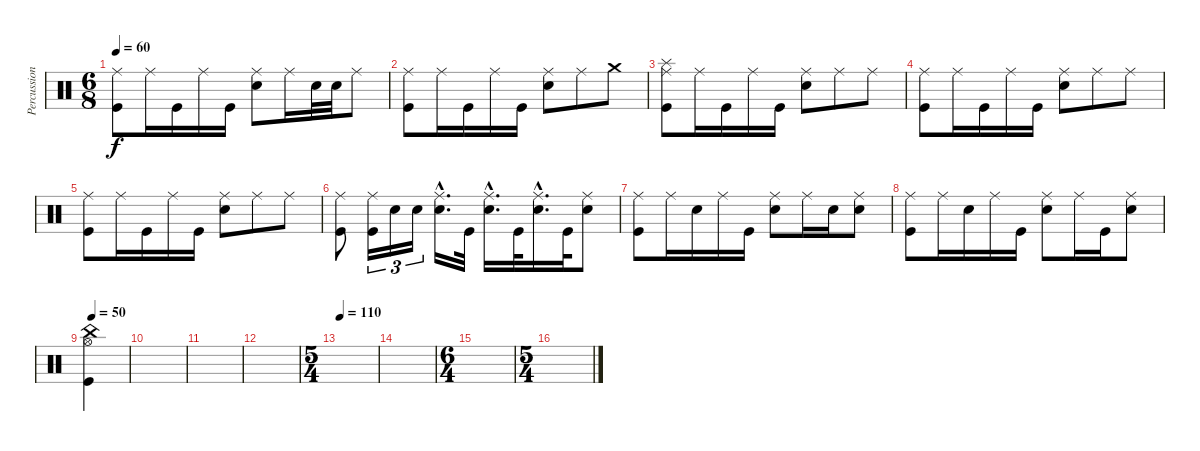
\track ("Percussions" "Percussion") {instrument percussion}
\staff {score}
\articulation defaults
\ts (6 8)
\tempo 60
\clef neutral
\ks c
("Ride (middle)" "Kick (hit)").8{dy f} "Ride (middle)".16 "Kick (hit)".16 "Ride (middle)".16 "Kick (hit)".16 ("Ride (middle)" "Snare (hit) 2").8 "Ride (middle)".16 "Snare (hit) 2".32 "Snare (hit) 2".32 "Ride (middle)".8 |
("Ride (middle)" "Kick (hit)").8 "Ride (middle)".16 "Kick (hit)".16 "Ride (middle)".16 "Kick (hit)".16 ("Ride (middle)" "Snare (hit) 2").8 "Ride (middle)".8 "Crash medium (hit)".8 |
("Splash (hit)" "Ride (middle)" "Kick (hit)").8 "Ride (middle)".16 "Kick (hit)".16 "Ride (middle)".16 "Kick (hit)".16 ("Ride (middle)" "Snare (hit) 2").8 "Ride (middle)".8 "Ride (middle)".8 |
("Ride (middle)" "Kick (hit)").8 "Ride (middle)".16 "Kick (hit)".16 "Ride (middle)".16 "Kick (hit)".16 ("Ride (middle)" "Snare (hit) 2").8 "Ride (middle)".8 "Ride (middle)".8 |
("Ride (middle)" "Kick (hit)").8 "Ride (middle)".16 "Kick (hit)".16 "Ride (middle)".16 "Kick (hit)".16 ("Ride (middle)" "Snare (hit) 2").8 "Ride (middle)".8 "Ride (middle)".8 |
("Ride (middle)" "Kick (hit)").8 ("Ride (middle)" "Kick (hit)").16{tu (3 2)} "Snare (hit) 2".16{tu (3 2)} "Snare (hit) 2".16{tu (3 2)} ("Ride (middle)"{hac} "Snare (hit) 2"{hac}).16{d} "Kick (hit)".32 ("Ride (middle)"{hac} "Snare (hit) 2"{hac}).16{d} "Kick (hit)".32 ("Ride (middle)"{hac} "Snare (hit) 2"{hac}).16{d} "Kick (hit)".32 ("Ride (middle)" "Snare (hit) 2").8 |
("Ride (middle)" "Kick (hit)").8 "Ride (middle)".16 "Snare (hit) 2".16 "Ride (middle)".16 "Kick (hit)".16 ("Ride (middle)" "Snare (hit) 2").8 "Ride (middle)".16 "Snare (hit) 2".16 ("Ride (middle)" "Snare (hit) 2").8 |
("Ride (middle)" "Kick (hit)").8 "Ride (middle)".16 "Snare (hit) 2".16 "Ride (middle)".16 "Kick (hit)".16 ("Ride (middle)" "Snare (hit) 2").8 "Ride (middle)".16 "Kick (hit)".16 ("Ride (middle)" "Snare (hit) 2").8 |
\tempo 50
("China (hit)" "Hi-Hat (open)" "Kick (hit)").4 |
|
|
|
\ts (5 4)
\tempo 110
|
|
\ts (6 4)
|
\ts (5 4)
